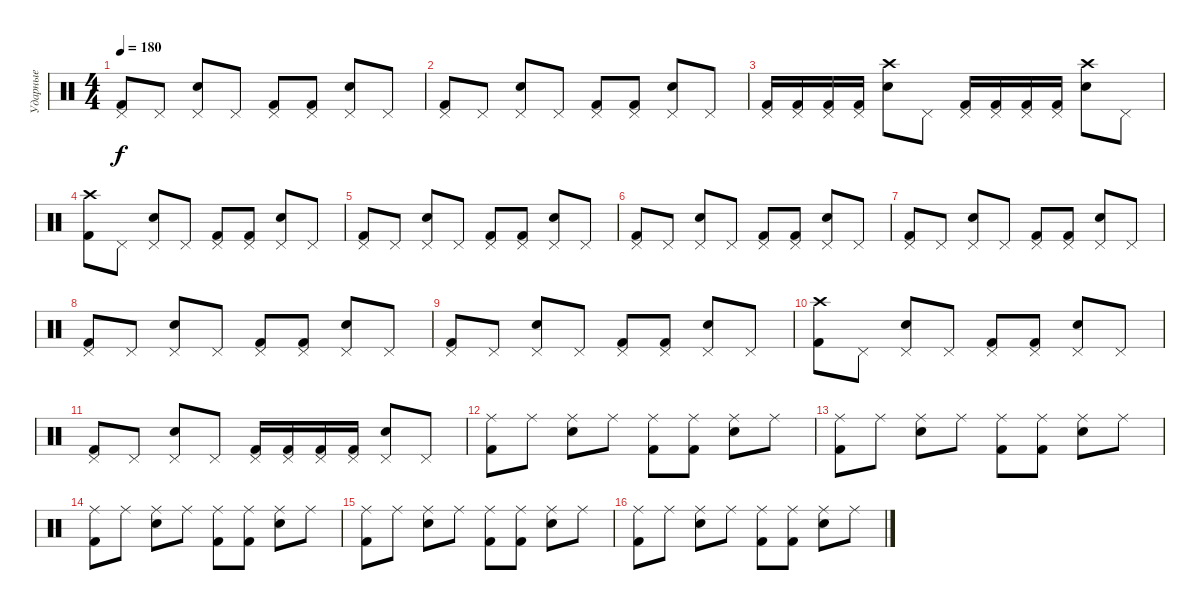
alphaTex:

\track ("Ударные" "Ударные") {instrument percussion}
\staff {score}
\articulation defaults
\ts (4 4)
\tempo 180
\clef neutral
\ks c
("Kick (hit) 2" "Pedal Hi-Hat (hit)").8{dy f} "Pedal Hi-Hat (hit)".8 ("Electric Snare (hit)" "Pedal Hi-Hat (hit)").8 "Pedal Hi-Hat (hit)".8 ("Pedal Hi-Hat (hit)" "Kick (hit) 2").8 ("Pedal Hi-Hat (hit)" "Kick (hit) 2").8 ("Electric Snare (hit)" "Pedal Hi-Hat (hit)").8 "Pedal Hi-Hat (hit)".8 |
("Kick (hit) 2" "Pedal Hi-Hat (hit)").8 "Pedal Hi-Hat (hit)".8 ("Electric Snare (hit)" "Pedal Hi-Hat (hit)").8 "Pedal Hi-Hat (hit)".8 ("Pedal Hi-Hat (hit)" "Kick (hit) 2").8 ("Pedal Hi-Hat (hit)" "Kick (hit) 2").8 ("Electric Snare (hit)" "Pedal Hi-Hat (hit)").8 "Pedal Hi-Hat (hit)".8 |
("Kick (hit) 2" "Pedal Hi-Hat (hit)").16 ("Kick (hit) 2" "Pedal Hi-Hat (hit)").16 ("Kick (hit) 2" "Pedal Hi-Hat (hit)").16 ("Kick (hit) 2" "Pedal Hi-Hat (hit)").16 ("Electric Snare (hit)" "Crash high (hit)").8 "Pedal Hi-Hat (hit)".8 ("Kick (hit) 2" "Pedal Hi-Hat (hit)").16 ("Kick (hit) 2" "Pedal Hi-Hat (hit)").16 ("Kick (hit) 2" "Pedal Hi-Hat (hit)").16 ("Kick (hit) 2" "Pedal Hi-Hat (hit)").16 ("Electric Snare (hit)" "Crash high (hit)").8 "Pedal Hi-Hat (hit)".8 |
("Kick (hit) 2" "Crash high (hit)").8 "Pedal Hi-Hat (hit)".8 ("Electric Snare (hit)" "Pedal Hi-Hat (hit)").8 "Pedal Hi-Hat (hit)".8 ("Pedal Hi-Hat (hit)" "Kick (hit) 2").8 ("Pedal Hi-Hat (hit)" "Kick (hit) 2").8 ("Electric Snare (hit)" "Pedal Hi-Hat (hit)").8 "Pedal Hi-Hat (hit)".8 |
("Kick (hit) 2" "Pedal Hi-Hat (hit)").8 "Pedal Hi-Hat (hit)".8 ("Electric Snare (hit)" "Pedal Hi-Hat (hit)").8 "Pedal Hi-Hat (hit)".8 ("Pedal Hi-Hat (hit)" "Kick (hit) 2").8 ("Pedal Hi-Hat (hit)" "Kick (hit) 2").8 ("Electric Snare (hit)" "Pedal Hi-Hat (hit)").8 "Pedal Hi-Hat (hit)".8 |
("Kick (hit) 2" "Pedal Hi-Hat (hit)").8 "Pedal Hi-Hat (hit)".8 ("Electric Snare (hit)" "Pedal Hi-Hat (hit)").8 "Pedal Hi-Hat (hit)".8 ("Pedal Hi-Hat (hit)" "Kick (hit) 2").8 ("Pedal Hi-Hat (hit)" "Kick (hit) 2").8 ("Electric Snare (hit)" "Pedal Hi-Hat (hit)").8 "Pedal Hi-Hat (hit)".8 |
("Kick (hit) 2" "Pedal Hi-Hat (hit)").8 "Pedal Hi-Hat (hit)".8 ("Electric Snare (hit)" "Pedal Hi-Hat (hit)").8 "Pedal Hi-Hat (hit)".8 ("Pedal Hi-Hat (hit)" "Kick (hit) 2").8 ("Pedal Hi-Hat (hit)" "Kick (hit) 2").8 ("Electric Snare (hit)" "Pedal Hi-Hat (hit)").8 "Pedal Hi-Hat (hit)".8 |
("Kick (hit) 2" "Pedal Hi-Hat (hit)").8 "Pedal Hi-Hat (hit)".8 ("Electric Snare (hit)" "Pedal Hi-Hat (hit)").8 "Pedal Hi-Hat (hit)".8 ("Pedal Hi-Hat (hit)" "Kick (hit) 2").8 ("Pedal Hi-Hat (hit)" "Kick (hit) 2").8 ("Electric Snare (hit)" "Pedal Hi-Hat (hit)").8 "Pedal Hi-Hat (hit)".8 |
("Kick (hit) 2" "Pedal Hi-Hat (hit)").8 "Pedal Hi-Hat (hit)".8 ("Electric Snare (hit)" "Pedal Hi-Hat (hit)").8 "Pedal Hi-Hat (hit)".8 ("Pedal Hi-Hat (hit)" "Kick (hit) 2").8 ("Pedal Hi-Hat (hit)" "Kick (hit) 2").8 ("Electric Snare (hit)" "Pedal Hi-Hat (hit)").8 "Pedal Hi-Hat (hit)".8 |
("Kick (hit) 2" "Crash high (hit)").8 "Pedal Hi-Hat (hit)".8 ("Electric Snare (hit)" "Pedal Hi-Hat (hit)").8 "Pedal Hi-Hat (hit)".8 ("Pedal Hi-Hat (hit)" "Kick (hit) 2").8 ("Pedal Hi-Hat (hit)" "Kick (hit) 2").8 ("Electric Snare (hit)" "Pedal Hi-Hat (hit)").8 "Pedal Hi-Hat (hit)".8 |
("Kick (hit) 2" "Pedal Hi-Hat (hit)").8 "Pedal Hi-Hat (hit)".8 ("Electric Snare (hit)" "Pedal Hi-Hat (hit)").8 "Pedal Hi-Hat (hit)".8 ("Pedal Hi-Hat (hit)" "Kick (hit) 2").16 ("Pedal Hi-Hat (hit)" "Kick (hit) 2").16 ("Kick (hit) 2" "Pedal Hi-Hat (hit)").16 ("Pedal Hi-Hat (hit)" "Kick (hit) 2").16 ("Electric Snare (hit)" "Pedal Hi-Hat (hit)").8 "Pedal Hi-Hat (hit)".8 |
("Kick (hit) 2" "Ride (middle)").8 "Ride (middle)".8 ("Electric Snare (hit)" "Ride (middle)").8 "Ride (middle)".8 ("Ride (middle)" "Kick (hit) 2").8 ("Ride (middle)" "Kick (hit) 2").8 ("Electric Snare (hit)" "Ride (middle)").8 "Ride (middle)".8 |
("Kick (hit) 2" "Ride (middle)").8 "Ride (middle)".8 ("Electric Snare (hit)" "Ride (middle)").8 "Ride (middle)".8 ("Ride (middle)" "Kick (hit) 2").8 ("Ride (middle)" "Kick (hit) 2").8 ("Electric Snare (hit)" "Ride (middle)").8 "Ride (middle)".8 |
("Kick (hit) 2" "Ride (middle)").8 "Ride (middle)".8 ("Electric Snare (hit)" "Ride (middle)").8 "Ride (middle)".8 ("Ride (middle)" "Kick (hit) 2").8 ("Ride (middle)" "Kick (hit) 2").8 ("Electric Snare (hit)" "Ride (middle)").8 "Ride (middle)".8 |
("Kick (hit) 2" "Ride (middle)").8 "Ride (middle)".8 ("Electric Snare (hit)" "Ride (middle)").8 "Ride (middle)".8 ("Ride (middle)" "Kick (hit) 2").8 ("Ride (middle)" "Kick (hit) 2").8 ("Electric Snare (hit)" "Ride (middle)").8 "Ride (middle)".8 |
("Kick (hit) 2" "Ride (middle)").8 "Ride (middle)".8 ("Electric Snare (hit)" "Ride (middle)").8 "Ride (middle)".8 ("Ride (middle)" "Kick (hit) 2").8 ("Ride (middle)" "Kick (hit) 2").8 ("Electric Snare (hit)" "Ride (middle)").8 "Ride (middle)".8
